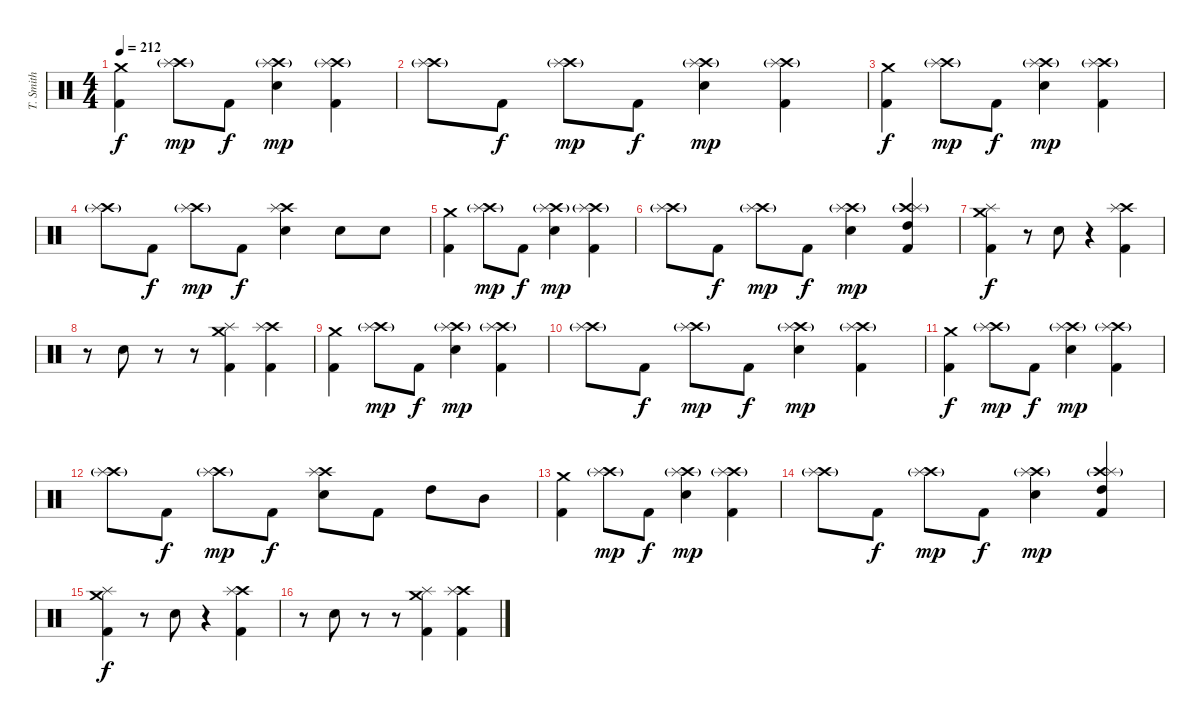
\track ("T. Smith" "T. Smith") {instrument percussion}
\staff {score}
\articulation defaults
\ts (4 4)
\tempo 212
\clef neutral
\ks c
("Crash medium (hit)" "Kick (hit) 2").4{dy f} ("Crash high (hit)"{g} "Splash (hit)").8{dy mp} "Kick (hit) 2".8{dy f} ("Crash high (hit)"{g} "Splash (hit)" "Electric Snare (hit)").4{dy mp} ("Crash high (hit)"{g} "Splash (hit)" "Kick (hit) 2").4 |
("Crash high (hit)"{g} "Splash (hit)").8 "Kick (hit) 2".8{dy f} ("Crash high (hit)"{g} "Splash (hit)").8{dy mp} "Kick (hit) 2".8{dy f} ("Crash high (hit)"{g} "Splash (hit)" "Electric Snare (hit)").4{dy mp} ("Crash high (hit)"{g} "Splash (hit)" "Kick (hit) 2").4 |
("Crash medium (hit)" "Kick (hit) 2").4{dy f} ("Crash high (hit)"{g} "Splash (hit)").8{dy mp} "Kick (hit) 2".8{dy f} ("Crash high (hit)"{g} "Splash (hit)" "Electric Snare (hit)").4{dy mp} ("Crash high (hit)"{g} "Splash (hit)" "Kick (hit) 2").4 |
("Crash high (hit)"{g} "Splash (hit)").8 "Kick (hit) 2".8{dy f} ("Crash high (hit)"{g} "Splash (hit)").8{dy mp} "Kick (hit) 2".8{dy f} ("Crash high (hit)" "Splash (hit)" "Electric Snare (hit)").4 "Electric Snare (hit)".8 "Electric Snare (hit)".8 |
("Crash medium (hit)" "Kick (hit) 2").4 ("Crash high (hit)"{g} "Splash (hit)").8{dy mp} "Kick (hit) 2".8{dy f} ("Crash high (hit)"{g} "Splash (hit)" "Electric Snare (hit)").4{dy mp} ("Crash high (hit)"{g} "Splash (hit)" "Kick (hit) 2").4 |
("Crash high (hit)"{g} "Splash (hit)").8 "Kick (hit) 2".8{dy f} ("Crash high (hit)"{g} "Splash (hit)").8{dy mp} "Kick (hit) 2".8{dy f} ("Crash high (hit)"{g} "Splash (hit)" "Electric Snare (hit)").4{dy mp} ("Crash high (hit)"{g} "Splash (hit)" "High Tom (hit)" "Kick (hit) 2").4 |
("Crash medium (hit)" "Splash (hit)" "Kick (hit) 2").4{dy f} r.8 "Electric Snare (hit)".8 r.4 ("Crash high (hit)" "Splash (hit)" "Kick (hit) 2").4 |
r.8 "Electric Snare (hit)".8 r.8 r.8 ("Crash medium (hit)" "Splash (hit)" "Kick (hit) 2").4 ("Crash high (hit)" "Splash (hit)" "Kick (hit) 2").4 |
("Crash medium (hit)" "Kick (hit) 2").4 ("Crash high (hit)"{g} "Splash (hit)").8{dy mp} "Kick (hit) 2".8{dy f} ("Crash high (hit)"{g} "Splash (hit)" "Electric Snare (hit)").4{dy mp} ("Crash high (hit)"{g} "Splash (hit)" "Kick (hit) 2").4 |
("Crash high (hit)"{g} "Splash (hit)").8 "Kick (hit) 2".8{dy f} ("Crash high (hit)"{g} "Splash (hit)").8{dy mp} "Kick (hit) 2".8{dy f} ("Crash high (hit)"{g} "Splash (hit)" "Electric Snare (hit)").4{dy mp} ("Crash high (hit)"{g} "Splash (hit)" "Kick (hit) 2").4 |
("Crash medium (hit)" "Kick (hit) 2").4{dy f} ("Crash high (hit)"{g} "Splash (hit)").8{dy mp} "Kick (hit) 2".8{dy f} ("Crash high (hit)"{g} "Splash (hit)" "Electric Snare (hit)").4{dy mp} ("Crash high (hit)"{g} "Splash (hit)" "Kick (hit) 2").4 |
("Crash high (hit)"{g} "Splash (hit)").8 "Kick (hit) 2".8{dy f} ("Crash high (hit)"{g} "Splash (hit)").8{dy mp} "Kick (hit) 2".8{dy f} ("Crash high (hit)" "Splash (hit)" "Electric Snare (hit)").8 "Kick (hit) 2".8 "High Tom (hit)".8 "Mid Tom (hit)".8 |
("Crash medium (hit)" "Kick (hit) 2").4 ("Crash high (hit)"{g} "Splash (hit)").8{dy mp} "Kick (hit) 2".8{dy f} ("Crash high (hit)"{g} "Splash (hit)" "Electric Snare (hit)").4{dy mp} ("Crash high (hit)"{g} "Splash (hit)" "Kick (hit) 2").4 |
("Crash high (hit)"{g} "Splash (hit)").8 "Kick (hit) 2".8{dy f} ("Crash high (hit)"{g} "Splash (hit)").8{dy mp} "Kick (hit) 2".8{dy f} ("Crash high (hit)"{g} "Splash (hit)" "Electric Snare (hit)").4{dy mp} ("Crash high (hit)"{g} "Splash (hit)" "High Tom (hit)" "Kick (hit) 2").4 |
("Crash medium (hit)" "Splash (hit)" "Kick (hit) 2").4{dy f} r.8 "Electric Snare (hit)".8 r.4 ("Crash high (hit)" "Splash (hit)" "Kick (hit) 2").4 |
r.8 "Electric Snare (hit)".8 r.8 r.8 ("Crash medium (hit)" "Splash (hit)" "Kick (hit) 2").4 ("Crash high (hit)" "Splash (hit)" "Kick (hit) 2").4
